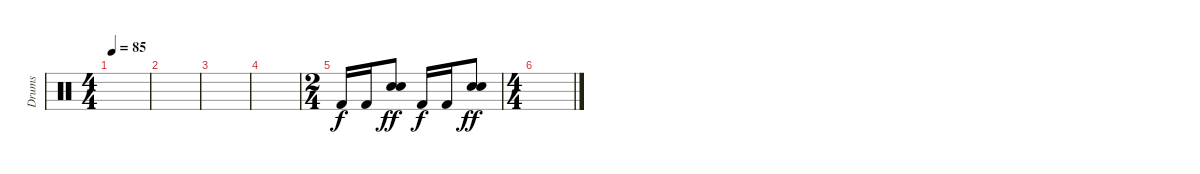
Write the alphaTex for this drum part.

\track ("Drums" "Drums") {instrument percussion}
\staff {score}
\articulation defaults
\ts (4 4)
\tempo 85
\clef neutral
\ks c
|
|
|
|
\ts (2 4)
"Kick (hit) 2".16 "Kick (hit) 2".16 ("Snare (hit) 2" "Snare (hit) 2").8{dy ff} "Kick (hit) 2".16{dy f} "Kick (hit) 2".16 ("Snare (hit) 2" "Snare (hit) 2").8{dy ff} |
\ts (4 4)
